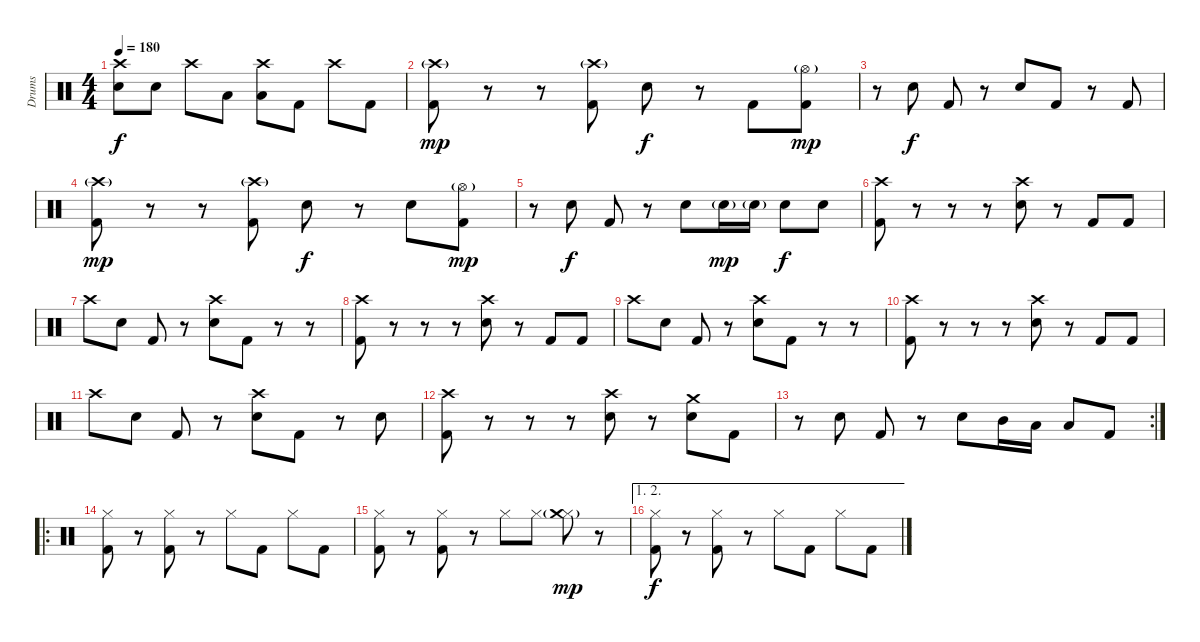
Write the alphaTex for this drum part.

\track ("Drums" "Drums") {instrument percussion}
\staff {score}
\articulation defaults
\ts (4 4)
\tempo 180
\clef neutral
\ks c
("Crash high (hit)" "Snare (hit) 2").8{dy f} "Snare (hit) 2".8 "Crash high (hit)".8 "Low Tom (hit)".8 ("Crash high (hit)" "Low Floor Tom (hit)").8 "Kick (hit) 2".8 "Crash high (hit)".8 "Kick (hit) 2".8 |
("Crash high (hit)"{g} "Kick (hit) 2").8{dy mp} r.8 r.8 ("Crash high (hit)"{g} "Kick (hit) 2").8 "Snare (hit) 2".8{dy f} r.8 "Kick (hit) 2".8 ("Hi-Hat (open)"{g} "Kick (hit) 2").8{dy mp} |
r.8 "Snare (hit) 2".8{dy f} "Kick (hit) 2".8 r.8 "Snare (hit) 2".8 "Kick (hit) 2".8 r.8 "Kick (hit) 2".8 |
("Crash high (hit)"{g} "Kick (hit) 2").8{dy mp} r.8 r.8 ("Crash high (hit)"{g} "Kick (hit) 2").8 "Snare (hit) 2".8{dy f} r.8 "Snare (hit) 2".8 ("Hi-Hat (open)"{g} "Kick (hit) 2").8{dy mp} |
r.8 "Snare (hit) 2".8{dy f} "Kick (hit) 2".8 r.8 "Snare (hit) 2".8 "Snare (hit) 2"{g}.16{dy mp} "Snare (hit) 2"{g}.16 "Snare (hit) 2".8{dy f} "Snare (hit) 2".8 |
("Crash high (hit)" "Kick (hit) 2").8 r.8 r.8 r.8 ("Crash high (hit)" "Snare (hit) 2").8 r.8 "Kick (hit) 2".8 "Kick (hit) 2".8 |
"Crash high (hit)".8 "Snare (hit) 2".8 "Kick (hit) 2".8 r.8 ("Crash high (hit)" "Snare (hit) 2").8 "Kick (hit) 2".8 r.8 r.8 |
("Crash high (hit)" "Kick (hit) 2").8 r.8 r.8 r.8 ("Crash high (hit)" "Snare (hit) 2").8 r.8 "Kick (hit) 2".8 "Kick (hit) 2".8 |
"Crash high (hit)".8 "Snare (hit) 2".8 "Kick (hit) 2".8 r.8 ("Crash high (hit)" "Snare (hit) 2").8 "Kick (hit) 2".8 r.8 r.8 |
("Crash high (hit)" "Kick (hit) 2").8 r.8 r.8 r.8 ("Crash high (hit)" "Snare (hit) 2").8 r.8 "Kick (hit) 2".8 "Kick (hit) 2".8 |
"Crash high (hit)".8 "Snare (hit) 2".8 "Kick (hit) 2".8 r.8 ("Crash high (hit)" "Snare (hit) 2").8 "Kick (hit) 2".8 r.8 "Snare (hit) 2".8 |
("Crash high (hit)" "Kick (hit) 2").8 r.8 r.8 r.8 ("Crash high (hit)" "Snare (hit) 2").8 r.8 ("Crash medium (hit)" "Snare (hit) 2").8 "Kick (hit) 2".8 |
\rc 2
r.8 "Snare (hit) 2".8 "Kick (hit) 2".8 r.8 "Snare (hit) 2".8 "Mid Tom (hit)".16 "Low Tom (hit)".16 "Low Floor Tom (hit)".8 "Kick (hit) 2".8 |
\ro
("Hi-Hat (closed)" "Kick (hit) 2").8 r.8 ("Hi-Hat (closed)" "Kick (hit) 2").8 r.8 "Hi-Hat (closed)".8 "Kick (hit) 2".8 "Hi-Hat (closed)".8 "Kick (hit) 2".8 |
("Hi-Hat (closed)" "Kick (hit) 2").8 r.8 ("Hi-Hat (closed)" "Kick (hit) 2").8 r.8 "Hi-Hat (closed)".8 "Hi-Hat (closed)".8 ("Hi-Hat (closed)" "Crash medium (hit)"{g}).8{dy mp} r.8 |
\ae (1 2)
("Hi-Hat (closed)" "Kick (hit) 2").8{dy f} r.8 ("Hi-Hat (closed)" "Kick (hit) 2").8 r.8 "Hi-Hat (closed)".8 "Kick (hit) 2".8 "Hi-Hat (closed)".8 "Kick (hit) 2".8
